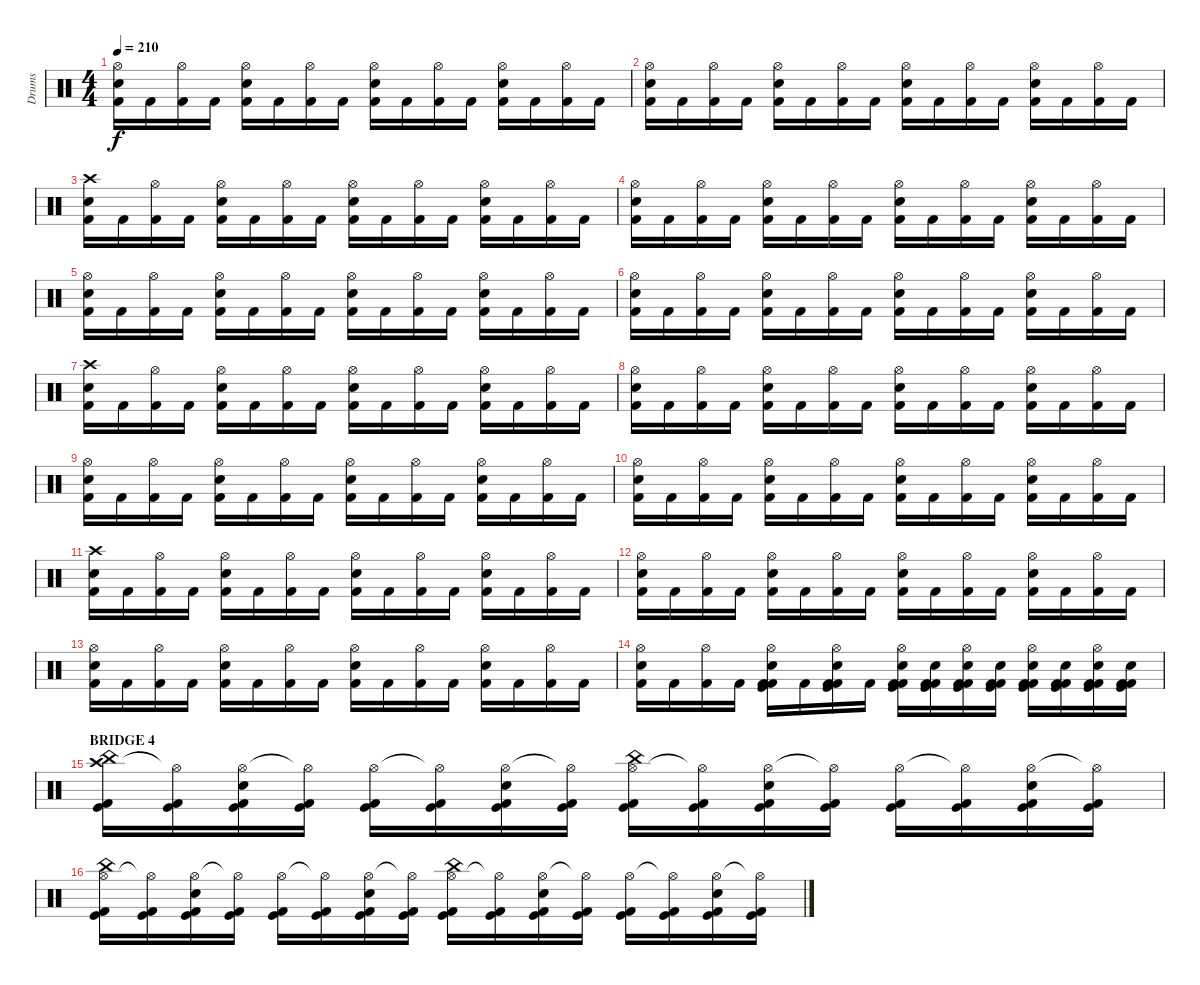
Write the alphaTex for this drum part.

\track ("Drums" "Drums") {instrument percussion}
\staff {score}
\articulation defaults
\ts (4 4)
\tempo 210
\clef neutral
\ks c
("Hi-Hat (open)" "Electric Snare (hit)" "Kick (hit) 2").16{dy f} "Kick (hit) 2".16 ("Hi-Hat (open)" "Kick (hit) 2").16 "Kick (hit) 2".16 ("Hi-Hat (open)" "Electric Snare (hit)" "Kick (hit) 2").16 "Kick (hit) 2".16 ("Hi-Hat (open)" "Kick (hit) 2").16 "Kick (hit) 2".16 ("Hi-Hat (open)" "Electric Snare (hit)" "Kick (hit) 2").16 "Kick (hit) 2".16 ("Hi-Hat (open)" "Kick (hit) 2").16 "Kick (hit) 2".16 ("Hi-Hat (open)" "Electric Snare (hit)" "Kick (hit) 2").16 "Kick (hit) 2".16 ("Hi-Hat (open)" "Kick (hit) 2").16 "Kick (hit) 2".16 |
("Hi-Hat (open)" "Electric Snare (hit)" "Kick (hit) 2").16 "Kick (hit) 2".16 ("Hi-Hat (open)" "Kick (hit) 2").16 "Kick (hit) 2".16 ("Hi-Hat (open)" "Electric Snare (hit)" "Kick (hit) 2").16 "Kick (hit) 2".16 ("Hi-Hat (open)" "Kick (hit) 2").16 "Kick (hit) 2".16 ("Hi-Hat (open)" "Electric Snare (hit)" "Kick (hit) 2").16 "Kick (hit) 2".16 ("Hi-Hat (open)" "Kick (hit) 2").16 "Kick (hit) 2".16 ("Hi-Hat (open)" "Electric Snare (hit)" "Kick (hit) 2").16 "Kick (hit) 2".16 ("Hi-Hat (open)" "Kick (hit) 2").16 "Kick (hit) 2".16 |
("Crash high (hit)" "Electric Snare (hit)" "Kick (hit) 2").16 "Kick (hit) 2".16 ("Hi-Hat (open)" "Kick (hit) 2").16 "Kick (hit) 2".16 ("Hi-Hat (open)" "Electric Snare (hit)" "Kick (hit) 2").16 "Kick (hit) 2".16 ("Hi-Hat (open)" "Kick (hit) 2").16 "Kick (hit) 2".16 ("Hi-Hat (open)" "Electric Snare (hit)" "Kick (hit) 2").16 "Kick (hit) 2".16 ("Hi-Hat (open)" "Kick (hit) 2").16 "Kick (hit) 2".16 ("Hi-Hat (open)" "Electric Snare (hit)" "Kick (hit) 2").16 "Kick (hit) 2".16 ("Hi-Hat (open)" "Kick (hit) 2").16 "Kick (hit) 2".16 |
("Hi-Hat (open)" "Electric Snare (hit)" "Kick (hit) 2").16 "Kick (hit) 2".16 ("Hi-Hat (open)" "Kick (hit) 2").16 "Kick (hit) 2".16 ("Hi-Hat (open)" "Electric Snare (hit)" "Kick (hit) 2").16 "Kick (hit) 2".16 ("Hi-Hat (open)" "Kick (hit) 2").16 "Kick (hit) 2".16 ("Hi-Hat (open)" "Electric Snare (hit)" "Kick (hit) 2").16 "Kick (hit) 2".16 ("Hi-Hat (open)" "Kick (hit) 2").16 "Kick (hit) 2".16 ("Hi-Hat (open)" "Electric Snare (hit)" "Kick (hit) 2").16 "Kick (hit) 2".16 ("Hi-Hat (open)" "Kick (hit) 2").16 "Kick (hit) 2".16 |
("Hi-Hat (open)" "Electric Snare (hit)" "Kick (hit) 2").16 "Kick (hit) 2".16 ("Hi-Hat (open)" "Kick (hit) 2").16 "Kick (hit) 2".16 ("Hi-Hat (open)" "Electric Snare (hit)" "Kick (hit) 2").16 "Kick (hit) 2".16 ("Hi-Hat (open)" "Kick (hit) 2").16 "Kick (hit) 2".16 ("Hi-Hat (open)" "Electric Snare (hit)" "Kick (hit) 2").16 "Kick (hit) 2".16 ("Hi-Hat (open)" "Kick (hit) 2").16 "Kick (hit) 2".16 ("Hi-Hat (open)" "Electric Snare (hit)" "Kick (hit) 2").16 "Kick (hit) 2".16 ("Hi-Hat (open)" "Kick (hit) 2").16 "Kick (hit) 2".16 |
("Hi-Hat (open)" "Electric Snare (hit)" "Kick (hit) 2").16 "Kick (hit) 2".16 ("Hi-Hat (open)" "Kick (hit) 2").16 "Kick (hit) 2".16 ("Hi-Hat (open)" "Electric Snare (hit)" "Kick (hit) 2").16 "Kick (hit) 2".16 ("Hi-Hat (open)" "Kick (hit) 2").16 "Kick (hit) 2".16 ("Hi-Hat (open)" "Electric Snare (hit)" "Kick (hit) 2").16 "Kick (hit) 2".16 ("Hi-Hat (open)" "Kick (hit) 2").16 "Kick (hit) 2".16 ("Hi-Hat (open)" "Electric Snare (hit)" "Kick (hit) 2").16 "Kick (hit) 2".16 ("Hi-Hat (open)" "Kick (hit) 2").16 "Kick (hit) 2".16 |
("Crash high (hit)" "Electric Snare (hit)" "Kick (hit) 2").16 "Kick (hit) 2".16 ("Hi-Hat (open)" "Kick (hit) 2").16 "Kick (hit) 2".16 ("Hi-Hat (open)" "Electric Snare (hit)" "Kick (hit) 2").16 "Kick (hit) 2".16 ("Hi-Hat (open)" "Kick (hit) 2").16 "Kick (hit) 2".16 ("Hi-Hat (open)" "Electric Snare (hit)" "Kick (hit) 2").16 "Kick (hit) 2".16 ("Hi-Hat (open)" "Kick (hit) 2").16 "Kick (hit) 2".16 ("Hi-Hat (open)" "Electric Snare (hit)" "Kick (hit) 2").16 "Kick (hit) 2".16 ("Hi-Hat (open)" "Kick (hit) 2").16 "Kick (hit) 2".16 |
("Hi-Hat (open)" "Electric Snare (hit)" "Kick (hit) 2").16 "Kick (hit) 2".16 ("Hi-Hat (open)" "Kick (hit) 2").16 "Kick (hit) 2".16 ("Hi-Hat (open)" "Electric Snare (hit)" "Kick (hit) 2").16 "Kick (hit) 2".16 ("Hi-Hat (open)" "Kick (hit) 2").16 "Kick (hit) 2".16 ("Hi-Hat (open)" "Electric Snare (hit)" "Kick (hit) 2").16 "Kick (hit) 2".16 ("Hi-Hat (open)" "Kick (hit) 2").16 "Kick (hit) 2".16 ("Hi-Hat (open)" "Electric Snare (hit)" "Kick (hit) 2").16 "Kick (hit) 2".16 ("Hi-Hat (open)" "Kick (hit) 2").16 "Kick (hit) 2".16 |
("Hi-Hat (open)" "Electric Snare (hit)" "Kick (hit) 2").16 "Kick (hit) 2".16 ("Hi-Hat (open)" "Kick (hit) 2").16 "Kick (hit) 2".16 ("Hi-Hat (open)" "Electric Snare (hit)" "Kick (hit) 2").16 "Kick (hit) 2".16 ("Hi-Hat (open)" "Kick (hit) 2").16 "Kick (hit) 2".16 ("Hi-Hat (open)" "Electric Snare (hit)" "Kick (hit) 2").16 "Kick (hit) 2".16 ("Hi-Hat (open)" "Kick (hit) 2").16 "Kick (hit) 2".16 ("Hi-Hat (open)" "Electric Snare (hit)" "Kick (hit) 2").16 "Kick (hit) 2".16 ("Hi-Hat (open)" "Kick (hit) 2").16 "Kick (hit) 2".16 |
("Hi-Hat (open)" "Electric Snare (hit)" "Kick (hit) 2").16 "Kick (hit) 2".16 ("Hi-Hat (open)" "Kick (hit) 2").16 "Kick (hit) 2".16 ("Hi-Hat (open)" "Electric Snare (hit)" "Kick (hit) 2").16 "Kick (hit) 2".16 ("Hi-Hat (open)" "Kick (hit) 2").16 "Kick (hit) 2".16 ("Hi-Hat (open)" "Electric Snare (hit)" "Kick (hit) 2").16 "Kick (hit) 2".16 ("Hi-Hat (open)" "Kick (hit) 2").16 "Kick (hit) 2".16 ("Hi-Hat (open)" "Electric Snare (hit)" "Kick (hit) 2").16 "Kick (hit) 2".16 ("Hi-Hat (open)" "Kick (hit) 2").16 "Kick (hit) 2".16 |
("Crash high (hit)" "Electric Snare (hit)" "Kick (hit) 2").16 "Kick (hit) 2".16 ("Hi-Hat (open)" "Kick (hit) 2").16 "Kick (hit) 2".16 ("Hi-Hat (open)" "Electric Snare (hit)" "Kick (hit) 2").16 "Kick (hit) 2".16 ("Hi-Hat (open)" "Kick (hit) 2").16 "Kick (hit) 2".16 ("Hi-Hat (open)" "Electric Snare (hit)" "Kick (hit) 2").16 "Kick (hit) 2".16 ("Hi-Hat (open)" "Kick (hit) 2").16 "Kick (hit) 2".16 ("Hi-Hat (open)" "Electric Snare (hit)" "Kick (hit) 2").16 "Kick (hit) 2".16 ("Hi-Hat (open)" "Kick (hit) 2").16 "Kick (hit) 2".16 |
("Hi-Hat (open)" "Electric Snare (hit)" "Kick (hit) 2").16 "Kick (hit) 2".16 ("Hi-Hat (open)" "Kick (hit) 2").16 "Kick (hit) 2".16 ("Hi-Hat (open)" "Electric Snare (hit)" "Kick (hit) 2").16 "Kick (hit) 2".16 ("Hi-Hat (open)" "Kick (hit) 2").16 "Kick (hit) 2".16 ("Hi-Hat (open)" "Electric Snare (hit)" "Kick (hit) 2").16 "Kick (hit) 2".16 ("Hi-Hat (open)" "Kick (hit) 2").16 "Kick (hit) 2".16 ("Hi-Hat (open)" "Electric Snare (hit)" "Kick (hit) 2").16 "Kick (hit) 2".16 ("Hi-Hat (open)" "Kick (hit) 2").16 "Kick (hit) 2".16 |
("Hi-Hat (open)" "Electric Snare (hit)" "Kick (hit) 2").16 "Kick (hit) 2".16 ("Hi-Hat (open)" "Kick (hit) 2").16 "Kick (hit) 2".16 ("Hi-Hat (open)" "Electric Snare (hit)" "Kick (hit) 2").16 "Kick (hit) 2".16 ("Hi-Hat (open)" "Kick (hit) 2").16 "Kick (hit) 2".16 ("Hi-Hat (open)" "Electric Snare (hit)" "Kick (hit) 2").16 "Kick (hit) 2".16 ("Hi-Hat (open)" "Kick (hit) 2").16 "Kick (hit) 2".16 ("Hi-Hat (open)" "Electric Snare (hit)" "Kick (hit) 2").16 "Kick (hit) 2".16 ("Hi-Hat (open)" "Kick (hit) 2").16 "Kick (hit) 2".16 |
("Hi-Hat (open)" "Electric Snare (hit)" "Kick (hit) 2").16 "Kick (hit) 2".16 ("Hi-Hat (open)" "Kick (hit) 2").16 "Kick (hit) 2".16 ("Hi-Hat (open)" "Kick (hit) 2" "Kick (hit)" "Electric Snare (hit)" "Kick (hit) 2").16 "Kick (hit) 2".16 ("Hi-Hat (open)" "Kick (hit) 2" "Kick (hit)" "Electric Snare (hit)" "Kick (hit) 2").16 "Kick (hit) 2".16 ("Hi-Hat (open)" "Kick (hit) 2" "Kick (hit)" "Electric Snare (hit)" "Kick (hit) 2").16 ("Kick (hit) 2" "Kick (hit)" "Electric Snare (hit)" "Kick (hit) 2").16 ("Hi-Hat (open)" "Kick (hit) 2" "Kick (hit)" "Electric Snare (hit)" "Kick (hit) 2").16 ("Kick (hit) 2" "Kick (hit)" "Electric Snare (hit)" "Kick (hit) 2").16 ("Hi-Hat (open)" "Kick (hit) 2" "Kick (hit)" "Electric Snare (hit)" "Kick (hit) 2").16 ("Kick (hit) 2" "Kick (hit)" "Electric Snare (hit)" "Kick (hit) 2").16 ("Hi-Hat (open)" "Kick (hit) 2" "Kick (hit)" "Electric Snare (hit)" "Kick (hit) 2").16 ("Kick (hit) 2" "Kick (hit)" "Electric Snare (hit)" "Kick (hit) 2").16 |
\section ("" "BRIDGE 4")
("Crash high (hit)" "China (hit)" "Kick (hit)" "Kick (hit) 2").16 ("Hi-Hat (open)"{t} "Kick (hit)" "Kick (hit) 2").16 ("Hi-Hat (open)" "Electric Snare (hit)" "Kick (hit)" "Kick (hit) 2").16 ("Hi-Hat (open)"{t} "Kick (hit)" "Kick (hit) 2").16 ("Hi-Hat (open)" "Kick (hit)" "Kick (hit) 2").16 ("Hi-Hat (open)"{t} "Kick (hit)" "Kick (hit) 2").16 ("Hi-Hat (open)" "Electric Snare (hit)" "Kick (hit)" "Kick (hit) 2").16 ("Hi-Hat (open)"{t} "Kick (hit)" "Kick (hit) 2").16 ("Hi-Hat (open)" "China (hit)" "Kick (hit)" "Kick (hit) 2").16 ("Hi-Hat (open)"{t} "Kick (hit)" "Kick (hit) 2").16 ("Hi-Hat (open)" "Electric Snare (hit)" "Kick (hit)" "Kick (hit) 2").16 ("Hi-Hat (open)"{t} "Kick (hit)" "Kick (hit) 2").16 ("Hi-Hat (open)" "Kick (hit)" "Kick (hit) 2").16 ("Hi-Hat (open)"{t} "Kick (hit)" "Kick (hit) 2").16 ("Hi-Hat (open)" "Electric Snare (hit)" "Kick (hit)" "Kick (hit) 2").16 ("Hi-Hat (open)"{t} "Kick (hit)" "Kick (hit) 2").16 |
("Hi-Hat (open)" "China (hit)" "Kick (hit)" "Kick (hit) 2").16 ("Hi-Hat (open)"{t} "Kick (hit)" "Kick (hit) 2").16 ("Hi-Hat (open)" "Electric Snare (hit)" "Kick (hit)" "Kick (hit) 2").16 ("Hi-Hat (open)"{t} "Kick (hit)" "Kick (hit) 2").16 ("Hi-Hat (open)" "Kick (hit)" "Kick (hit) 2").16 ("Hi-Hat (open)"{t} "Kick (hit)" "Kick (hit) 2").16 ("Hi-Hat (open)" "Electric Snare (hit)" "Kick (hit)" "Kick (hit) 2").16 ("Hi-Hat (open)"{t} "Kick (hit)" "Kick (hit) 2").16 ("Hi-Hat (open)" "China (hit)" "Kick (hit)" "Kick (hit) 2").16 ("Hi-Hat (open)"{t} "Kick (hit)" "Kick (hit) 2").16 ("Hi-Hat (open)" "Electric Snare (hit)" "Kick (hit)" "Kick (hit) 2").16 ("Hi-Hat (open)"{t} "Kick (hit)" "Kick (hit) 2").16 ("Hi-Hat (open)" "Kick (hit)" "Kick (hit) 2").16 ("Hi-Hat (open)"{t} "Kick (hit)" "Kick (hit) 2").16 ("Hi-Hat (open)" "Electric Snare (hit)" "Kick (hit)" "Kick (hit) 2").16 ("Hi-Hat (open)"{t} "Kick (hit)" "Kick (hit) 2").16
